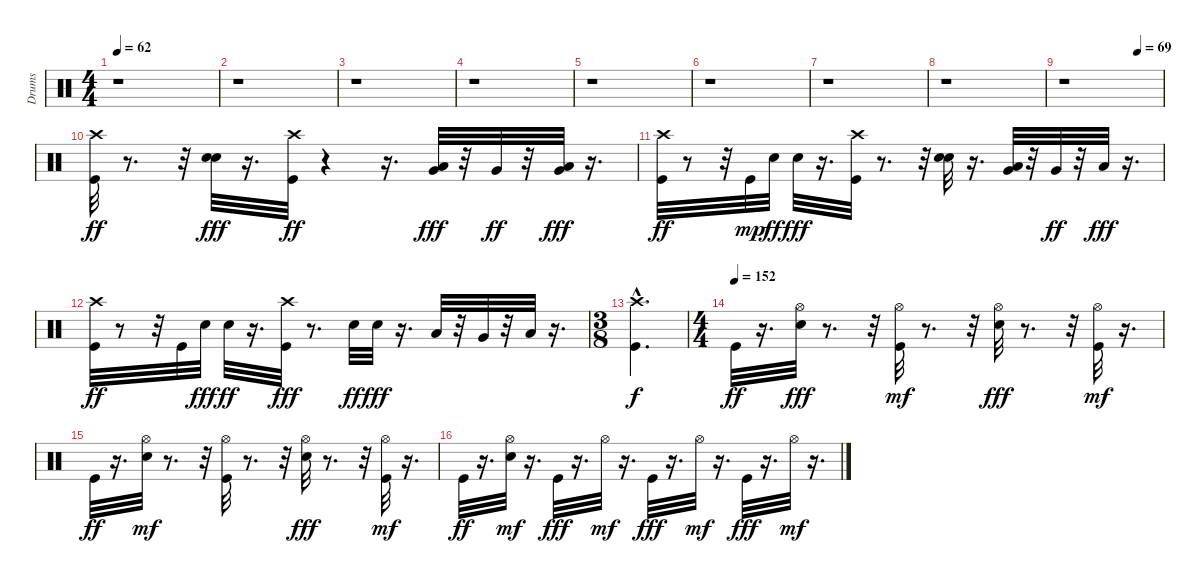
\track ("Drums" "Drums") {instrument percussion}
\staff {score}
\articulation defaults
\ts (4 4)
\tempo 62
\clef neutral
\ks c
r.1{dy ff} |
r.1 |
r.1 |
r.1 |
r.1 |
r.1 |
r.1 |
r.1 |
\tempo (69 0.75)
r.1 |
("Kick (hit)" "Crash high (hit)").32 r.8{d} r.32 ("Snare (hit) 2" "Snare (hit) 2").32{dy fff} r.16{d} ("Kick (hit)" "Crash high (hit)").32{dy ff} r.4 r.16{d} ("Very Low Tom (hit)" "Low Tom (hit)").32{dy fff} r.32 "Very Low Tom (hit)".32{dy ff} r.32 ("Very Low Tom (hit)" "Low Floor Tom (hit)").32{dy fff} r.16{d} |
("Kick (hit)" "Crash high (hit)").32{dy ff} r.8 r.32 "Kick (hit)".32{dy mp} "Snare (hit) 2".32{dy ff} "Snare (hit) 2".32{dy fff} r.16{d} ("Kick (hit)" "Crash high (hit)").32 r.8{d} r.32 ("Snare (hit) 2" "Snare (hit) 2").32 r.16{d} ("Very Low Tom (hit)" "Low Tom (hit)").32 r.32 "Very Low Tom (hit)".32{dy ff} r.32 "Low Floor Tom (hit)".32{dy fff} r.16{d} |
("Kick (hit)" "Crash high (hit)").32{dy ff} r.8 r.32 "Kick (hit)".32 "Snare (hit) 2".32{dy fff} "Snare (hit) 2".32{dy ff} r.16{d} ("Kick (hit)" "Crash high (hit)").32{dy fff} r.8{d} "Snare (hit) 2".32{dy ff} "Snare (hit) 2".32{dy fff} r.16{d} "Low Tom (hit)".32 r.32 "Very Low Tom (hit)".32 r.32 "Low Floor Tom (hit)".32 r.16{d} |
\ts (3 8)
("Kick (hit)"{hac} "Crash high (hit)"{hac}).4{d dy f} |
\ts (4 4)
\tempo (152)
"Kick (hit)".32{dy ff} r.16{d} ("Hi-Hat (open)" "Snare (hit) 2").32{dy fff} r.8{d} r.32 ("Hi-Hat (open)" "Kick (hit)").32{dy mf} r.8{d} r.32 ("Hi-Hat (open)" "Snare (hit) 2").32{dy fff} r.8{d} r.32 ("Kick (hit)" "Hi-Hat (open)").32{dy mf} r.16{d} |
"Kick (hit)".32{dy ff} r.16{d} ("Snare (hit) 2" "Hi-Hat (open)").32{dy mf} r.8{d} r.32 ("Kick (hit)" "Hi-Hat (open)").32 r.8{d} r.32 ("Hi-Hat (open)" "Snare (hit) 2").32{dy fff} r.8{d} r.32 ("Kick (hit)" "Hi-Hat (open)").32{dy mf} r.16{d} |
"Kick (hit)".32{dy ff} r.16{d} ("Snare (hit) 2" "Hi-Hat (open)").32{dy mf} r.16{d} "Kick (hit)".32{dy fff} r.16{d} "Hi-Hat (open)".32{dy mf} r.16{d} "Kick (hit)".32{dy fff} r.16{d} "Hi-Hat (open)".32{dy mf} r.16{d} "Kick (hit)".32{dy fff} r.16{d} "Hi-Hat (open)".32{dy mf} r.16{d}
